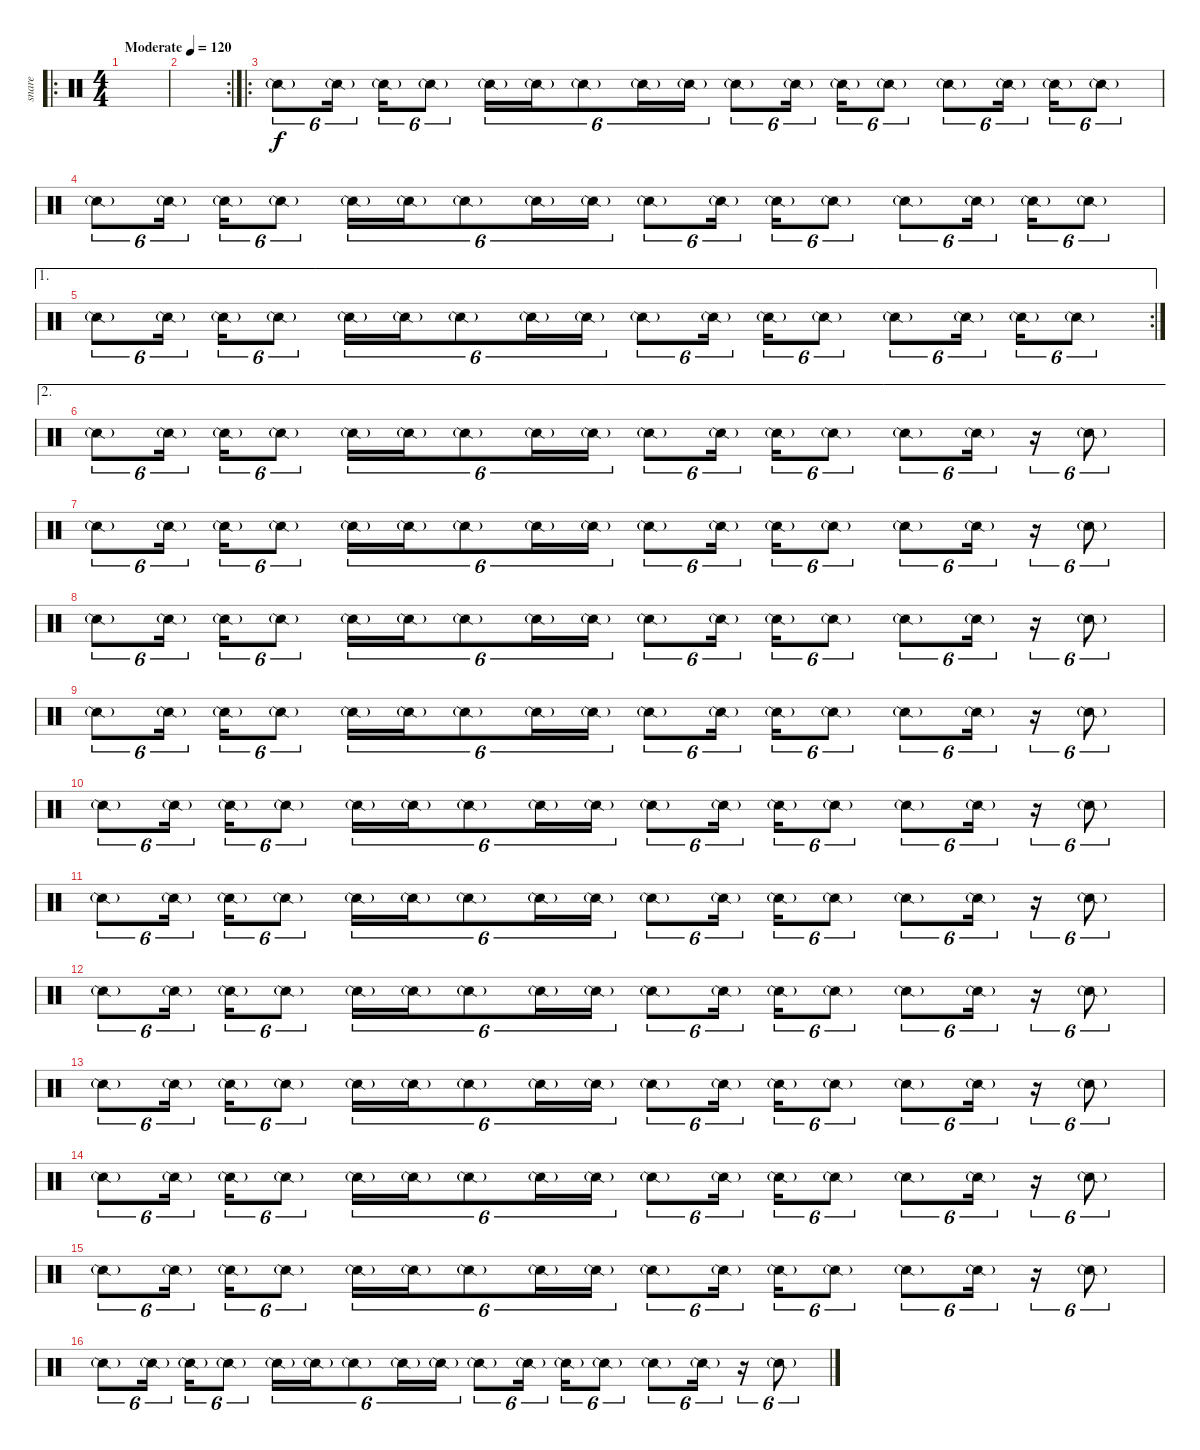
\track ("snare" "snare") {instrument percussion}
\staff {score}
\articulation defaults
\ro
\ts (4 4)
\tempo (120 "Moderate")
\clef neutral
\ks c
|
\rc 2
|
\ro "Snare (side stick) 2"{g}.8{tu (6 4)} "Snare (side stick) 2"{g}.16{tu (6 4) beam splitsecondary} "Snare (side stick) 2"{g}.16{tu (6 4)} "Snare (side stick) 2"{g}.8{tu (6 4)} "Snare (side stick) 2"{g}.16{tu (6 4)} "Snare (side stick) 2"{g}.16{tu (6 4)} "Snare (side stick) 2"{g}.8{tu (6 4)} "Snare (side stick) 2"{g}.16{tu (6 4)} "Snare (side stick) 2"{g}.16{tu (6 4)} "Snare (side stick) 2"{g}.8{tu (6 4)} "Snare (side stick) 2"{g}.16{tu (6 4) beam splitsecondary} "Snare (side stick) 2"{g}.16{tu (6 4)} "Snare (side stick) 2"{g}.8{tu (6 4)} "Snare (side stick) 2"{g}.8{tu (6 4)} "Snare (side stick) 2"{g}.16{tu (6 4) beam splitsecondary} "Snare (side stick) 2"{g}.16{tu (6 4)} "Snare (side stick) 2"{g}.8{tu (6 4)}
|
"Snare (side stick) 2"{g}.8{tu (6 4)} "Snare (side stick) 2"{g}.16{tu (6 4) beam splitsecondary} "Snare (side stick) 2"{g}.16{tu (6 4)} "Snare (side stick) 2"{g}.8{tu (6 4)} "Snare (side stick) 2"{g}.16{tu (6 4)} "Snare (side stick) 2"{g}.16{tu (6 4)} "Snare (side stick) 2"{g}.8{tu (6 4)} "Snare (side stick) 2"{g}.16{tu (6 4)} "Snare (side stick) 2"{g}.16{tu (6 4)} "Snare (side stick) 2"{g}.8{tu (6 4)} "Snare (side stick) 2"{g}.16{tu (6 4) beam splitsecondary} "Snare (side stick) 2"{g}.16{tu (6 4)} "Snare (side stick) 2"{g}.8{tu (6 4)} "Snare (side stick) 2"{g}.8{tu (6 4)} "Snare (side stick) 2"{g}.16{tu (6 4) beam splitsecondary} "Snare (side stick) 2"{g}.16{tu (6 4)} "Snare (side stick) 2"{g}.8{tu (6 4)} |
\ae 1
\rc 2 "Snare (side stick) 2"{g}.8{tu (6 4)} "Snare (side stick) 2"{g}.16{tu (6 4) beam splitsecondary} "Snare (side stick) 2"{g}.16{tu (6 4)} "Snare (side stick) 2"{g}.8{tu (6 4)} "Snare (side stick) 2"{g}.16{tu (6 4)} "Snare (side stick) 2"{g}.16{tu (6 4)} "Snare (side stick) 2"{g}.8{tu (6 4)} "Snare (side stick) 2"{g}.16{tu (6 4)} "Snare (side stick) 2"{g}.16{tu (6 4)} "Snare (side stick) 2"{g}.8{tu (6 4)} "Snare (side stick) 2"{g}.16{tu (6 4) beam splitsecondary} "Snare (side stick) 2"{g}.16{tu (6 4)} "Snare (side stick) 2"{g}.8{tu (6 4)} "Snare (side stick) 2"{g}.8{tu (6 4)} "Snare (side stick) 2"{g}.16{tu (6 4) beam splitsecondary} "Snare (side stick) 2"{g}.16{tu (6 4)} "Snare (side stick) 2"{g}.8{tu (6 4)}
|
\ae 2 "Snare (side stick) 2"{g}.8{tu (6 4)} "Snare (side stick) 2"{g}.16{tu (6 4) beam splitsecondary} "Snare (side stick) 2"{g}.16{tu (6 4)} "Snare (side stick) 2"{g}.8{tu (6 4)} "Snare (side stick) 2"{g}.16{tu (6 4)} "Snare (side stick) 2"{g}.16{tu (6 4)} "Snare (side stick) 2"{g}.8{tu (6 4)} "Snare (side stick) 2"{g}.16{tu (6 4)} "Snare (side stick) 2"{g}.16{tu (6 4)} "Snare (side stick) 2"{g}.8{tu (6 4)} "Snare (side stick) 2"{g}.16{tu (6 4) beam splitsecondary} "Snare (side stick) 2"{g}.16{tu (6 4)} "Snare (side stick) 2"{g}.8{tu (6 4)} "Snare (side stick) 2"{g}.8{tu (6 4)} "Snare (side stick) 2"{g}.16{tu (6 4)}
r.16{tu (6 4)} "Snare (side stick) 2"{g}.8{tu (6 4)} |
"Snare (side stick) 2"{g}.8{tu (6 4)} "Snare (side stick) 2"{g}.16{tu (6 4) beam splitsecondary} "Snare (side stick) 2"{g}.16{tu (6 4)} "Snare (side stick) 2"{g}.8{tu (6 4)} "Snare (side stick) 2"{g}.16{tu (6 4)} "Snare (side stick) 2"{g}.16{tu (6 4)} "Snare (side stick) 2"{g}.8{tu (6 4)} "Snare (side stick) 2"{g}.16{tu (6 4)} "Snare (side stick) 2"{g}.16{tu (6 4)} "Snare (side stick) 2"{g}.8{tu (6 4)} "Snare (side stick) 2"{g}.16{tu (6 4) beam splitsecondary} "Snare (side stick) 2"{g}.16{tu (6 4)} "Snare (side stick) 2"{g}.8{tu (6 4)} "Snare (side stick) 2"{g}.8{tu (6 4)} "Snare (side stick) 2"{g}.16{tu (6 4)} r.16{tu (6 4)} "Snare (side stick) 2"{g}.8{tu (6 4)} |
"Snare (side stick) 2"{g}.8{tu (6 4)} "Snare (side stick) 2"{g}.16{tu (6 4) beam splitsecondary} "Snare (side stick) 2"{g}.16{tu (6 4)} "Snare (side stick) 2"{g}.8{tu (6 4)} "Snare (side stick) 2"{g}.16{tu (6 4)} "Snare (side stick) 2"{g}.16{tu (6 4)} "Snare (side stick) 2"{g}.8{tu (6 4)} "Snare (side stick) 2"{g}.16{tu (6 4)} "Snare (side stick) 2"{g}.16{tu (6 4)} "Snare (side stick) 2"{g}.8{tu (6 4)} "Snare (side stick) 2"{g}.16{tu (6 4) beam splitsecondary} "Snare (side stick) 2"{g}.16{tu (6 4)} "Snare (side stick) 2"{g}.8{tu (6 4)} "Snare (side stick) 2"{g}.8{tu (6 4)} "Snare (side stick) 2"{g}.16{tu (6 4)} r.16{tu (6 4)} "Snare (side stick) 2"{g}.8{tu (6 4)} |
"Snare (side stick) 2"{g}.8{tu (6 4)} "Snare (side stick) 2"{g}.16{tu (6 4) beam splitsecondary} "Snare (side stick) 2"{g}.16{tu (6 4)} "Snare (side stick) 2"{g}.8{tu (6 4)} "Snare (side stick) 2"{g}.16{tu (6 4)} "Snare (side stick) 2"{g}.16{tu (6 4)} "Snare (side stick) 2"{g}.8{tu (6 4)} "Snare (side stick) 2"{g}.16{tu (6 4)} "Snare (side stick) 2"{g}.16{tu (6 4)} "Snare (side stick) 2"{g}.8{tu (6 4)} "Snare (side stick) 2"{g}.16{tu (6 4) beam splitsecondary} "Snare (side stick) 2"{g}.16{tu (6 4)} "Snare (side stick) 2"{g}.8{tu (6 4)} "Snare (side stick) 2"{g}.8{tu (6 4)} "Snare (side stick) 2"{g}.16{tu (6 4)} r.16{tu (6 4)} "Snare (side stick) 2"{g}.8{tu (6 4)} |
"Snare (side stick) 2"{g}.8{tu (6 4)} "Snare (side stick) 2"{g}.16{tu (6 4) beam splitsecondary} "Snare (side stick) 2"{g}.16{tu (6 4)} "Snare (side stick) 2"{g}.8{tu (6 4)} "Snare (side stick) 2"{g}.16{tu (6 4)} "Snare (side stick) 2"{g}.16{tu (6 4)} "Snare (side stick) 2"{g}.8{tu (6 4)} "Snare (side stick) 2"{g}.16{tu (6 4)} "Snare (side stick) 2"{g}.16{tu (6 4)} "Snare (side stick) 2"{g}.8{tu (6 4)} "Snare (side stick) 2"{g}.16{tu (6 4) beam splitsecondary} "Snare (side stick) 2"{g}.16{tu (6 4)} "Snare (side stick) 2"{g}.8{tu (6 4)} "Snare (side stick) 2"{g}.8{tu (6 4)} "Snare (side stick) 2"{g}.16{tu (6 4)} r.16{tu (6 4)} "Snare (side stick) 2"{g}.8{tu (6 4)} |
"Snare (side stick) 2"{g}.8{tu (6 4)} "Snare (side stick) 2"{g}.16{tu (6 4) beam splitsecondary} "Snare (side stick) 2"{g}.16{tu (6 4)} "Snare (side stick) 2"{g}.8{tu (6 4)} "Snare (side stick) 2"{g}.16{tu (6 4)} "Snare (side stick) 2"{g}.16{tu (6 4)} "Snare (side stick) 2"{g}.8{tu (6 4)} "Snare (side stick) 2"{g}.16{tu (6 4)} "Snare (side stick) 2"{g}.16{tu (6 4)} "Snare (side stick) 2"{g}.8{tu (6 4)} "Snare (side stick) 2"{g}.16{tu (6 4) beam splitsecondary} "Snare (side stick) 2"{g}.16{tu (6 4)} "Snare (side stick) 2"{g}.8{tu (6 4)} "Snare (side stick) 2"{g}.8{tu (6 4)} "Snare (side stick) 2"{g}.16{tu (6 4)} r.16{tu (6 4)} "Snare (side stick) 2"{g}.8{tu (6 4)} |
"Snare (side stick) 2"{g}.8{tu (6 4)} "Snare (side stick) 2"{g}.16{tu (6 4) beam splitsecondary} "Snare (side stick) 2"{g}.16{tu (6 4)} "Snare (side stick) 2"{g}.8{tu (6 4)} "Snare (side stick) 2"{g}.16{tu (6 4)} "Snare (side stick) 2"{g}.16{tu (6 4)} "Snare (side stick) 2"{g}.8{tu (6 4)} "Snare (side stick) 2"{g}.16{tu (6 4)} "Snare (side stick) 2"{g}.16{tu (6 4)} "Snare (side stick) 2"{g}.8{tu (6 4)} "Snare (side stick) 2"{g}.16{tu (6 4) beam splitsecondary} "Snare (side stick) 2"{g}.16{tu (6 4)} "Snare (side stick) 2"{g}.8{tu (6 4)} "Snare (side stick) 2"{g}.8{tu (6 4)} "Snare (side stick) 2"{g}.16{tu (6 4)} r.16{tu (6 4)} "Snare (side stick) 2"{g}.8{tu (6 4)} |
"Snare (side stick) 2"{g}.8{tu (6 4)} "Snare (side stick) 2"{g}.16{tu (6 4) beam splitsecondary} "Snare (side stick) 2"{g}.16{tu (6 4)} "Snare (side stick) 2"{g}.8{tu (6 4)} "Snare (side stick) 2"{g}.16{tu (6 4)} "Snare (side stick) 2"{g}.16{tu (6 4)} "Snare (side stick) 2"{g}.8{tu (6 4)} "Snare (side stick) 2"{g}.16{tu (6 4)} "Snare (side stick) 2"{g}.16{tu (6 4)} "Snare (side stick) 2"{g}.8{tu (6 4)} "Snare (side stick) 2"{g}.16{tu (6 4) beam splitsecondary} "Snare (side stick) 2"{g}.16{tu (6 4)} "Snare (side stick) 2"{g}.8{tu (6 4)} "Snare (side stick) 2"{g}.8{tu (6 4)} "Snare (side stick) 2"{g}.16{tu (6 4)} r.16{tu (6 4)} "Snare (side stick) 2"{g}.8{tu (6 4)} |
"Snare (side stick) 2"{g}.8{tu (6 4)} "Snare (side stick) 2"{g}.16{tu (6 4) beam splitsecondary} "Snare (side stick) 2"{g}.16{tu (6 4)} "Snare (side stick) 2"{g}.8{tu (6 4)} "Snare (side stick) 2"{g}.16{tu (6 4)} "Snare (side stick) 2"{g}.16{tu (6 4)} "Snare (side stick) 2"{g}.8{tu (6 4)} "Snare (side stick) 2"{g}.16{tu (6 4)} "Snare (side stick) 2"{g}.16{tu (6 4)} "Snare (side stick) 2"{g}.8{tu (6 4)} "Snare (side stick) 2"{g}.16{tu (6 4) beam splitsecondary} "Snare (side stick) 2"{g}.16{tu (6 4)} "Snare (side stick) 2"{g}.8{tu (6 4)} "Snare (side stick) 2"{g}.8{tu (6 4)} "Snare (side stick) 2"{g}.16{tu (6 4)} r.16{tu (6 4)} "Snare (side stick) 2"{g}.8{tu (6 4)} |
"Snare (side stick) 2"{g}.8{tu (6 4)} "Snare (side stick) 2"{g}.16{tu (6 4) beam splitsecondary} "Snare (side stick) 2"{g}.16{tu (6 4)} "Snare (side stick) 2"{g}.8{tu (6 4)} "Snare (side stick) 2"{g}.16{tu (6 4)} "Snare (side stick) 2"{g}.16{tu (6 4)} "Snare (side stick) 2"{g}.8{tu (6 4)} "Snare (side stick) 2"{g}.16{tu (6 4)} "Snare (side stick) 2"{g}.16{tu (6 4)} "Snare (side stick) 2"{g}.8{tu (6 4)} "Snare (side stick) 2"{g}.16{tu (6 4) beam splitsecondary} "Snare (side stick) 2"{g}.16{tu (6 4)} "Snare (side stick) 2"{g}.8{tu (6 4)} "Snare (side stick) 2"{g}.8{tu (6 4)} "Snare (side stick) 2"{g}.16{tu (6 4)} r.16{tu (6 4)} "Snare (side stick) 2"{g}.8{tu (6 4)} |
"Snare (side stick) 2"{g}.8{tu (6 4)} "Snare (side stick) 2"{g}.16{tu (6 4) beam splitsecondary} "Snare (side stick) 2"{g}.16{tu (6 4)} "Snare (side stick) 2"{g}.8{tu (6 4)} "Snare (side stick) 2"{g}.16{tu (6 4)} "Snare (side stick) 2"{g}.16{tu (6 4)} "Snare (side stick) 2"{g}.8{tu (6 4)} "Snare (side stick) 2"{g}.16{tu (6 4)} "Snare (side stick) 2"{g}.16{tu (6 4)} "Snare (side stick) 2"{g}.8{tu (6 4)} "Snare (side stick) 2"{g}.16{tu (6 4) beam splitsecondary} "Snare (side stick) 2"{g}.16{tu (6 4)} "Snare (side stick) 2"{g}.8{tu (6 4)} "Snare (side stick) 2"{g}.8{tu (6 4)} "Snare (side stick) 2"{g}.16{tu (6 4)} r.16{tu (6 4)} "Snare (side stick) 2"{g}.8{tu (6 4)}
